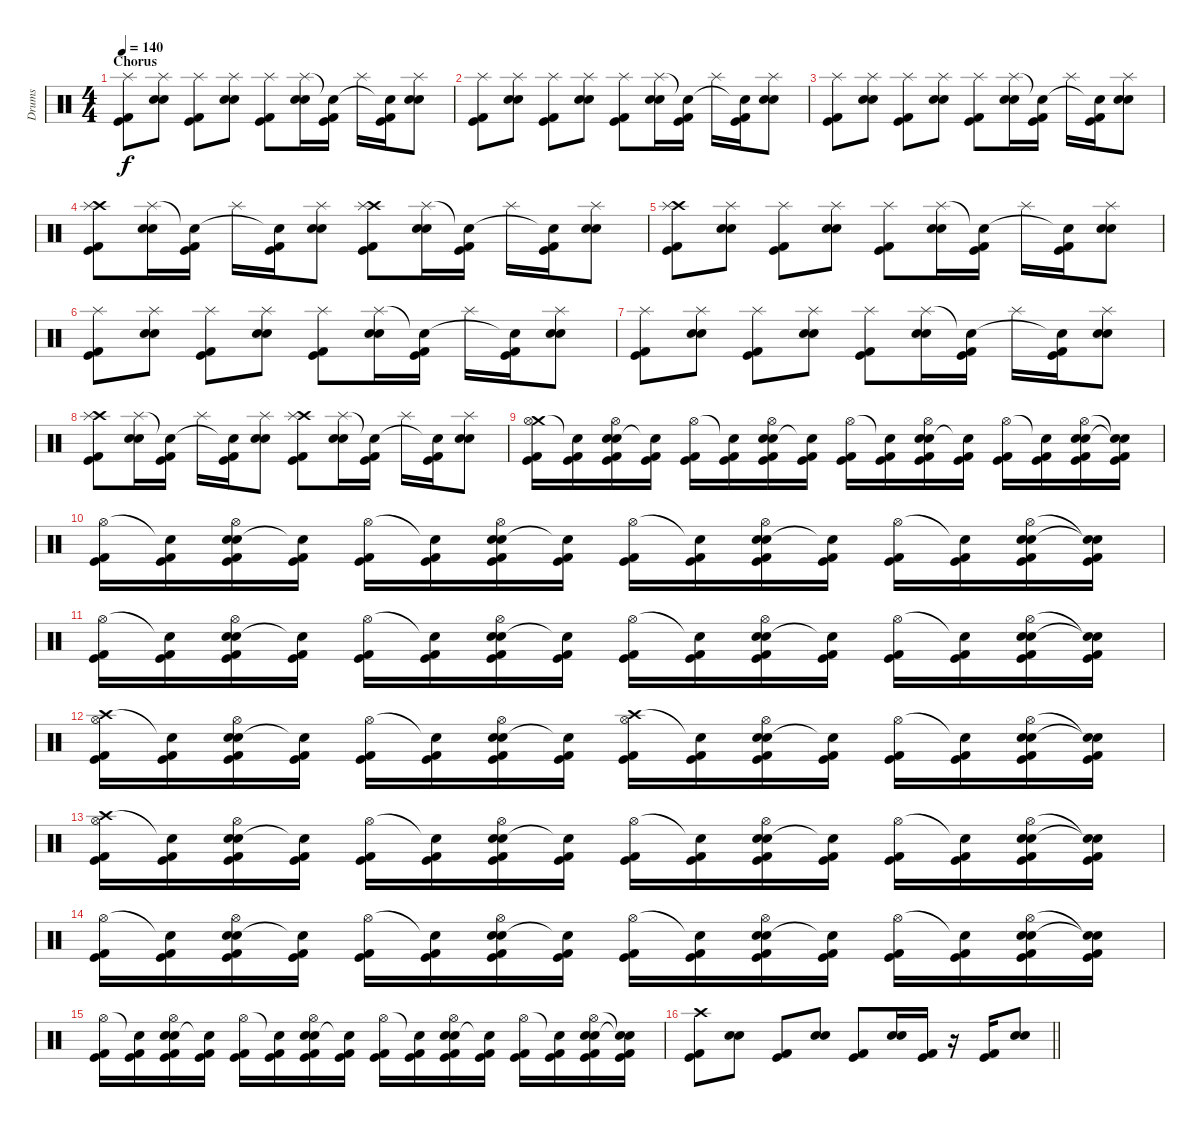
\track ("Drums" "Drums") {instrument percussion}
\staff {score}
\articulation defaults
\ts (4 4)
\section ("" "Chorus")
\tempo 140
\clef neutral
\ks c
("Kick (hit) 2" "Splash (hit)" "Kick (hit)").8{dy f} ("Electric Snare (hit)" "Splash (hit)" "Snare (hit) 2").8 ("Kick (hit) 2" "Splash (hit)" "Kick (hit)").8 ("Electric Snare (hit)" "Splash (hit)" "Snare (hit) 2").8 ("Kick (hit) 2" "Splash (hit)" "Kick (hit)").8 ("Electric Snare (hit)" "Splash (hit)" "Snare (hit) 2").16 ("Kick (hit) 2" "Snare (hit)"{t} "Kick (hit)").16 "Splash (hit)".16 ("Kick (hit) 2" "Snare (hit)"{t} "Kick (hit)").16 ("Electric Snare (hit)" "Splash (hit)" "Snare (hit) 2").8 |
("Kick (hit) 2" "Splash (hit)" "Kick (hit)").8 ("Electric Snare (hit)" "Splash (hit)" "Snare (hit) 2").8 ("Kick (hit) 2" "Splash (hit)" "Kick (hit)").8 ("Electric Snare (hit)" "Splash (hit)" "Snare (hit) 2").8 ("Kick (hit) 2" "Splash (hit)" "Kick (hit)").8 ("Electric Snare (hit)" "Splash (hit)" "Snare (hit) 2").16 ("Kick (hit) 2" "Snare (hit)"{t} "Kick (hit)").16 "Splash (hit)".16 ("Kick (hit) 2" "Snare (hit)"{t} "Kick (hit)").16 ("Electric Snare (hit)" "Splash (hit)" "Snare (hit) 2").8 |
("Kick (hit) 2" "Splash (hit)" "Kick (hit)").8 ("Electric Snare (hit)" "Splash (hit)" "Snare (hit) 2").8 ("Kick (hit) 2" "Splash (hit)" "Kick (hit)").8 ("Electric Snare (hit)" "Splash (hit)" "Snare (hit) 2").8 ("Kick (hit) 2" "Splash (hit)" "Kick (hit)").8 ("Electric Snare (hit)" "Splash (hit)" "Snare (hit) 2").16 ("Kick (hit) 2" "Snare (hit)"{t} "Kick (hit)").16 "Splash (hit)".16 ("Kick (hit) 2" "Snare (hit)"{t} "Kick (hit)").16 ("Electric Snare (hit)" "Splash (hit)" "Snare (hit) 2").8 |
("Kick (hit) 2" "Crash high (hit)" "Splash (hit)" "Kick (hit)").8 ("Electric Snare (hit)" "Splash (hit)" "Snare (hit) 2").16 ("Kick (hit) 2" "Snare (hit)"{t} "Kick (hit)").16 "Splash (hit)".16 ("Kick (hit) 2" "Snare (hit)"{t} "Kick (hit)").16 ("Electric Snare (hit)" "Splash (hit)" "Snare (hit) 2").8 ("Kick (hit) 2" "Crash high (hit)" "Splash (hit)" "Kick (hit)").8 ("Electric Snare (hit)" "Splash (hit)" "Snare (hit) 2").16 ("Kick (hit) 2" "Snare (hit)"{t} "Kick (hit)").16 "Splash (hit)".16 ("Kick (hit) 2" "Snare (hit)"{t} "Kick (hit)").16 ("Electric Snare (hit)" "Splash (hit)" "Snare (hit) 2").8 |
("Kick (hit) 2" "Crash high (hit)" "Splash (hit)" "Kick (hit)").8 ("Electric Snare (hit)" "Splash (hit)" "Snare (hit) 2").8 ("Kick (hit) 2" "Splash (hit)" "Kick (hit)").8 ("Electric Snare (hit)" "Splash (hit)" "Snare (hit) 2").8 ("Kick (hit) 2" "Splash (hit)" "Kick (hit)").8 ("Electric Snare (hit)" "Splash (hit)" "Snare (hit) 2").16 ("Kick (hit) 2" "Snare (hit)"{t} "Kick (hit)").16 "Splash (hit)".16 ("Kick (hit) 2" "Snare (hit)"{t} "Kick (hit)").16 ("Electric Snare (hit)" "Splash (hit)" "Snare (hit) 2").8 |
("Kick (hit) 2" "Splash (hit)" "Kick (hit)").8 ("Electric Snare (hit)" "Splash (hit)" "Snare (hit) 2").8 ("Kick (hit) 2" "Splash (hit)" "Kick (hit)").8 ("Electric Snare (hit)" "Splash (hit)" "Snare (hit) 2").8 ("Kick (hit) 2" "Splash (hit)" "Kick (hit)").8 ("Electric Snare (hit)" "Splash (hit)" "Snare (hit) 2").16 ("Kick (hit) 2" "Snare (hit)"{t} "Kick (hit)").16 "Splash (hit)".16 ("Kick (hit) 2" "Snare (hit)"{t} "Kick (hit)").16 ("Electric Snare (hit)" "Splash (hit)" "Snare (hit) 2").8 |
("Kick (hit) 2" "Splash (hit)" "Kick (hit)").8 ("Electric Snare (hit)" "Splash (hit)" "Snare (hit) 2").8 ("Kick (hit) 2" "Splash (hit)" "Kick (hit)").8 ("Electric Snare (hit)" "Splash (hit)" "Snare (hit) 2").8 ("Kick (hit) 2" "Splash (hit)" "Kick (hit)").8 ("Electric Snare (hit)" "Splash (hit)" "Snare (hit) 2").16 ("Kick (hit) 2" "Snare (hit)"{t} "Kick (hit)").16 "Splash (hit)".16 ("Kick (hit) 2" "Snare (hit)"{t} "Kick (hit)").16 ("Electric Snare (hit)" "Splash (hit)" "Snare (hit) 2").8 |
("Kick (hit) 2" "Crash high (hit)" "Splash (hit)" "Kick (hit)").8 ("Electric Snare (hit)" "Splash (hit)" "Snare (hit) 2").16 ("Kick (hit) 2" "Snare (hit)"{t} "Kick (hit)").16 "Splash (hit)".16 ("Kick (hit) 2" "Snare (hit)"{t} "Kick (hit)").16 ("Electric Snare (hit)" "Splash (hit)" "Snare (hit) 2").8 ("Kick (hit) 2" "Crash high (hit)" "Splash (hit)" "Kick (hit)").8 ("Electric Snare (hit)" "Splash (hit)" "Snare (hit) 2").16 ("Kick (hit) 2" "Snare (hit)"{t} "Kick (hit)").16 "Splash (hit)".16 ("Kick (hit) 2" "Snare (hit)"{t} "Kick (hit)").16 ("Electric Snare (hit)" "Splash (hit)" "Snare (hit) 2").8 |
("Kick (hit) 2" "Crash medium (hit)" "Hi-Hat (open)" "Kick (hit)").16 ("Kick (hit) 2" "Snare (hit)"{t} "Kick (hit)").16 ("Kick (hit) 2" "Electric Snare (hit)" "Hi-Hat (open)" "Snare (hit) 2" "Kick (hit)").16 ("Kick (hit) 2" "Snare (hit)"{t} "Kick (hit)").16 ("Kick (hit) 2" "Hi-Hat (open)" "Kick (hit)").16 ("Kick (hit) 2" "Snare (hit)"{t} "Kick (hit)").16 ("Kick (hit) 2" "Electric Snare (hit)" "Hi-Hat (open)" "Snare (hit) 2" "Kick (hit)").16 ("Kick (hit) 2" "Snare (hit)"{t} "Kick (hit)").16 ("Kick (hit) 2" "Hi-Hat (open)" "Kick (hit)").16 ("Kick (hit) 2" "Snare (hit)"{t} "Kick (hit)").16 ("Kick (hit) 2" "Electric Snare (hit)" "Hi-Hat (open)" "Snare (hit) 2" "Kick (hit)").16 ("Kick (hit) 2" "Snare (hit)"{t} "Kick (hit)").16 ("Kick (hit) 2" "Hi-Hat (open)" "Kick (hit)").16 ("Kick (hit) 2" "Snare (hit)"{t} "Kick (hit)").16 ("Kick (hit) 2" "Electric Snare (hit)" "Hi-Hat (open)" "Snare (hit) 2" "Kick (hit)").16 ("Kick (hit) 2" "Snare (hit)"{t} "Snare (hit)"{t} "Kick (hit)").16 |
("Kick (hit) 2" "Hi-Hat (open)" "Kick (hit)").16 ("Kick (hit) 2" "Snare (hit)"{t} "Kick (hit)").16 ("Kick (hit) 2" "Electric Snare (hit)" "Hi-Hat (open)" "Snare (hit) 2" "Kick (hit)").16 ("Kick (hit) 2" "Snare (hit)"{t} "Kick (hit)").16 ("Kick (hit) 2" "Hi-Hat (open)" "Kick (hit)").16 ("Kick (hit) 2" "Snare (hit)"{t} "Kick (hit)").16 ("Kick (hit) 2" "Electric Snare (hit)" "Hi-Hat (open)" "Snare (hit) 2" "Kick (hit)").16 ("Kick (hit) 2" "Snare (hit)"{t} "Kick (hit)").16 ("Kick (hit) 2" "Hi-Hat (open)" "Kick (hit)").16 ("Kick (hit) 2" "Snare (hit)"{t} "Kick (hit)").16 ("Kick (hit) 2" "Electric Snare (hit)" "Hi-Hat (open)" "Snare (hit) 2" "Kick (hit)").16 ("Kick (hit) 2" "Snare (hit)"{t} "Kick (hit)").16 ("Kick (hit) 2" "Hi-Hat (open)" "Kick (hit)").16 ("Kick (hit) 2" "Snare (hit)"{t} "Kick (hit)").16 ("Kick (hit) 2" "Electric Snare (hit)" "Hi-Hat (open)" "Snare (hit) 2" "Kick (hit)").16 ("Kick (hit) 2" "Snare (hit)"{t} "Snare (hit)"{t} "Kick (hit)").16 |
("Kick (hit) 2" "Hi-Hat (open)" "Kick (hit)").16 ("Kick (hit) 2" "Snare (hit)"{t} "Kick (hit)").16 ("Kick (hit) 2" "Electric Snare (hit)" "Hi-Hat (open)" "Snare (hit) 2" "Kick (hit)").16 ("Kick (hit) 2" "Snare (hit)"{t} "Kick (hit)").16 ("Kick (hit) 2" "Hi-Hat (open)" "Kick (hit)").16 ("Kick (hit) 2" "Snare (hit)"{t} "Kick (hit)").16 ("Kick (hit) 2" "Electric Snare (hit)" "Hi-Hat (open)" "Snare (hit) 2" "Kick (hit)").16 ("Kick (hit) 2" "Snare (hit)"{t} "Kick (hit)").16 ("Kick (hit) 2" "Hi-Hat (open)" "Kick (hit)").16 ("Kick (hit) 2" "Snare (hit)"{t} "Kick (hit)").16 ("Kick (hit) 2" "Electric Snare (hit)" "Hi-Hat (open)" "Snare (hit) 2" "Kick (hit)").16 ("Kick (hit) 2" "Snare (hit)"{t} "Kick (hit)").16 ("Kick (hit) 2" "Hi-Hat (open)" "Kick (hit)").16 ("Kick (hit) 2" "Snare (hit)"{t} "Kick (hit)").16 ("Kick (hit) 2" "Electric Snare (hit)" "Hi-Hat (open)" "Snare (hit) 2" "Kick (hit)").16 ("Kick (hit) 2" "Snare (hit)"{t} "Snare (hit)"{t} "Kick (hit)").16 |
("Kick (hit) 2" "Crash high (hit)" "Hi-Hat (open)" "Kick (hit)").16 ("Kick (hit) 2" "Snare (hit)"{t} "Kick (hit)").16 ("Kick (hit) 2" "Electric Snare (hit)" "Hi-Hat (open)" "Snare (hit) 2" "Kick (hit)").16 ("Kick (hit) 2" "Snare (hit)"{t} "Kick (hit)").16 ("Kick (hit) 2" "Hi-Hat (open)" "Kick (hit)").16 ("Kick (hit) 2" "Snare (hit)"{t} "Kick (hit)").16 ("Kick (hit) 2" "Electric Snare (hit)" "Hi-Hat (open)" "Snare (hit) 2" "Kick (hit)").16 ("Kick (hit) 2" "Snare (hit)"{t} "Kick (hit)").16 ("Kick (hit) 2" "Crash high (hit)" "Hi-Hat (open)" "Kick (hit)").16 ("Kick (hit) 2" "Snare (hit)"{t} "Kick (hit)").16 ("Kick (hit) 2" "Electric Snare (hit)" "Hi-Hat (open)" "Snare (hit) 2" "Kick (hit)").16 ("Kick (hit) 2" "Snare (hit)"{t} "Kick (hit)").16 ("Kick (hit) 2" "Hi-Hat (open)" "Kick (hit)").16 ("Kick (hit) 2" "Snare (hit)"{t} "Kick (hit)").16 ("Kick (hit) 2" "Electric Snare (hit)" "Hi-Hat (open)" "Snare (hit) 2" "Kick (hit)").16 ("Kick (hit) 2" "Snare (hit)"{t} "Snare (hit)"{t} "Kick (hit)").16 |
("Kick (hit) 2" "Crash high (hit)" "Hi-Hat (open)" "Kick (hit)").16 ("Kick (hit) 2" "Snare (hit)"{t} "Kick (hit)").16 ("Kick (hit) 2" "Electric Snare (hit)" "Hi-Hat (open)" "Snare (hit) 2" "Kick (hit)").16 ("Kick (hit) 2" "Snare (hit)"{t} "Kick (hit)").16 ("Kick (hit) 2" "Hi-Hat (open)" "Kick (hit)").16 ("Kick (hit) 2" "Snare (hit)"{t} "Kick (hit)").16 ("Kick (hit) 2" "Electric Snare (hit)" "Hi-Hat (open)" "Snare (hit) 2" "Kick (hit)").16 ("Kick (hit) 2" "Snare (hit)"{t} "Kick (hit)").16 ("Kick (hit) 2" "Hi-Hat (open)" "Kick (hit)").16 ("Kick (hit) 2" "Snare (hit)"{t} "Kick (hit)").16 ("Kick (hit) 2" "Electric Snare (hit)" "Hi-Hat (open)" "Snare (hit) 2" "Kick (hit)").16 ("Kick (hit) 2" "Snare (hit)"{t} "Kick (hit)").16 ("Kick (hit) 2" "Hi-Hat (open)" "Kick (hit)").16 ("Kick (hit) 2" "Snare (hit)"{t} "Kick (hit)").16 ("Kick (hit) 2" "Electric Snare (hit)" "Hi-Hat (open)" "Snare (hit) 2" "Kick (hit)").16 ("Kick (hit) 2" "Snare (hit)"{t} "Snare (hit)"{t} "Kick (hit)").16 |
("Kick (hit) 2" "Hi-Hat (open)" "Kick (hit)").16 ("Kick (hit) 2" "Snare (hit)"{t} "Kick (hit)").16 ("Kick (hit) 2" "Electric Snare (hit)" "Hi-Hat (open)" "Snare (hit) 2" "Kick (hit)").16 ("Kick (hit) 2" "Snare (hit)"{t} "Kick (hit)").16 ("Kick (hit) 2" "Hi-Hat (open)" "Kick (hit)").16 ("Kick (hit) 2" "Snare (hit)"{t} "Kick (hit)").16 ("Kick (hit) 2" "Electric Snare (hit)" "Hi-Hat (open)" "Snare (hit) 2" "Kick (hit)").16 ("Kick (hit) 2" "Snare (hit)"{t} "Kick (hit)").16 ("Kick (hit) 2" "Hi-Hat (open)" "Kick (hit)").16 ("Kick (hit) 2" "Snare (hit)"{t} "Kick (hit)").16 ("Kick (hit) 2" "Electric Snare (hit)" "Hi-Hat (open)" "Snare (hit) 2" "Kick (hit)").16 ("Kick (hit) 2" "Snare (hit)"{t} "Kick (hit)").16 ("Kick (hit) 2" "Hi-Hat (open)" "Kick (hit)").16 ("Kick (hit) 2" "Snare (hit)"{t} "Kick (hit)").16 ("Kick (hit) 2" "Electric Snare (hit)" "Hi-Hat (open)" "Snare (hit) 2" "Kick (hit)").16 ("Kick (hit) 2" "Snare (hit)"{t} "Snare (hit)"{t} "Kick (hit)").16 |
("Kick (hit) 2" "Hi-Hat (open)" "Kick (hit)").16 ("Kick (hit) 2" "Snare (hit)"{t} "Kick (hit)").16 ("Kick (hit) 2" "Electric Snare (hit)" "Hi-Hat (open)" "Snare (hit) 2" "Kick (hit)").16 ("Kick (hit) 2" "Snare (hit)"{t} "Kick (hit)").16 ("Kick (hit) 2" "Hi-Hat (open)" "Kick (hit)").16 ("Kick (hit) 2" "Snare (hit)"{t} "Kick (hit)").16 ("Kick (hit) 2" "Electric Snare (hit)" "Hi-Hat (open)" "Snare (hit) 2" "Kick (hit)").16 ("Kick (hit) 2" "Snare (hit)"{t} "Kick (hit)").16 ("Kick (hit) 2" "Hi-Hat (open)" "Kick (hit)").16 ("Kick (hit) 2" "Snare (hit)"{t} "Kick (hit)").16 ("Kick (hit) 2" "Electric Snare (hit)" "Hi-Hat (open)" "Snare (hit) 2" "Kick (hit)").16 ("Kick (hit) 2" "Snare (hit)"{t} "Kick (hit)").16 ("Kick (hit) 2" "Hi-Hat (open)" "Kick (hit)").16 ("Kick (hit) 2" "Snare (hit)"{t} "Kick (hit)").16 ("Kick (hit) 2" "Electric Snare (hit)" "Hi-Hat (open)" "Snare (hit) 2" "Kick (hit)").16 ("Kick (hit) 2" "Snare (hit)"{t} "Snare (hit)"{t} "Kick (hit)").16 |
\barLineRight lightlight
("Kick (hit) 2" "Crash high (hit)" "Kick (hit)").8 ("Electric Snare (hit)" "Snare (hit) 2").8 ("Kick (hit) 2" "Kick (hit)").8 ("Electric Snare (hit)" "Snare (hit) 2").8 ("Kick (hit) 2" "Kick (hit)").8 ("Electric Snare (hit)" "Snare (hit) 2").16 ("Kick (hit) 2" "Kick (hit)").16 r.16 ("Kick (hit) 2" "Kick (hit)").16 ("Electric Snare (hit)" "Snare (hit) 2").8
